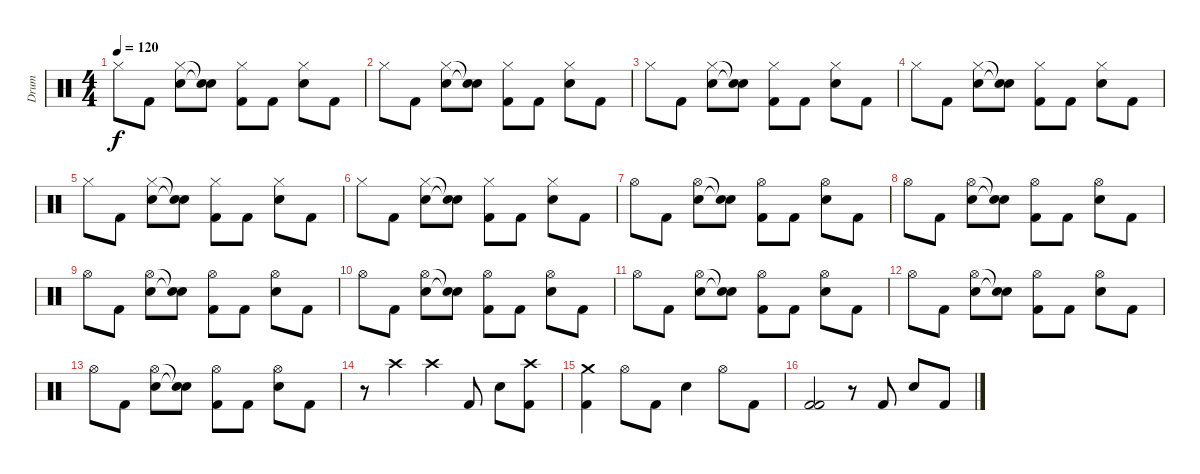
\track ("Drum" "Drum") {instrument percussion}
\staff {score}
\articulation defaults
\ts (4 4)
\tempo 120
\clef neutral
\ks c "Hi-Hat (closed)".8{dy f} "Kick (hit) 2".8
("Hi-Hat (closed)" "Electric Snare (hit)").8 ("Snare (hit)"{t} "Snare (hit)"{t}).8 ("Hi-Hat (closed)" "Kick (hit) 2").8 "Kick (hit) 2".8 ("Hi-Hat (closed)" "Electric Snare (hit)").8 "Kick (hit) 2".8 |
"Hi-Hat (closed)".8 "Kick (hit) 2".8 ("Hi-Hat (closed)" "Electric Snare (hit)").8 ("Snare (hit)"{t} "Snare (hit)"{t}).8 ("Hi-Hat (closed)" "Kick (hit) 2").8 "Kick (hit) 2".8 ("Hi-Hat (closed)" "Electric Snare (hit)").8 "Kick (hit) 2".8 |
"Hi-Hat (closed)".8 "Kick (hit) 2".8 ("Hi-Hat (closed)" "Electric Snare (hit)").8 ("Snare (hit)"{t} "Snare (hit)"{t}).8 ("Hi-Hat (closed)" "Kick (hit) 2").8 "Kick (hit) 2".8 ("Hi-Hat (closed)" "Electric Snare (hit)").8 "Kick (hit) 2".8 |
"Hi-Hat (closed)".8 "Kick (hit) 2".8 ("Hi-Hat (closed)" "Electric Snare (hit)").8 ("Snare (hit)"{t} "Snare (hit)"{t}).8 ("Hi-Hat (closed)" "Kick (hit) 2").8 "Kick (hit) 2".8 ("Hi-Hat (closed)" "Electric Snare (hit)").8 "Kick (hit) 2".8 |
"Hi-Hat (closed)".8 "Kick (hit) 2".8 ("Hi-Hat (closed)" "Electric Snare (hit)").8 ("Snare (hit)"{t} "Snare (hit)"{t}).8 ("Hi-Hat (closed)" "Kick (hit) 2").8 "Kick (hit) 2".8 ("Hi-Hat (closed)" "Electric Snare (hit)").8 "Kick (hit) 2".8 |
"Hi-Hat (closed)".8 "Kick (hit) 2".8 ("Hi-Hat (closed)" "Electric Snare (hit)").8 ("Snare (hit)"{t} "Snare (hit)"{t}).8 ("Hi-Hat (closed)" "Kick (hit) 2").8 "Kick (hit) 2".8 ("Hi-Hat (closed)" "Electric Snare (hit)").8 "Kick (hit) 2".8 |
"Hi-Hat (open)".8 "Kick (hit) 2".8 ("Hi-Hat (open)" "Electric Snare (hit)").8 ("Snare (hit)"{t} "Snare (hit)"{t}).8 ("Hi-Hat (open)" "Kick (hit) 2").8 "Kick (hit) 2".8 ("Hi-Hat (open)" "Electric Snare (hit)").8 "Kick (hit) 2".8 |
"Hi-Hat (open)".8 "Kick (hit) 2".8 ("Hi-Hat (open)" "Electric Snare (hit)").8 ("Snare (hit)"{t} "Snare (hit)"{t}).8 ("Hi-Hat (open)" "Kick (hit) 2").8 "Kick (hit) 2".8 ("Hi-Hat (open)" "Electric Snare (hit)").8 "Kick (hit) 2".8 |
"Hi-Hat (open)".8 "Kick (hit) 2".8 ("Hi-Hat (open)" "Electric Snare (hit)").8 ("Snare (hit)"{t} "Snare (hit)"{t}).8 ("Hi-Hat (open)" "Kick (hit) 2").8 "Kick (hit) 2".8 ("Hi-Hat (open)" "Electric Snare (hit)").8 "Kick (hit) 2".8 |
"Hi-Hat (open)".8 "Kick (hit) 2".8 ("Hi-Hat (open)" "Electric Snare (hit)").8 ("Snare (hit)"{t} "Snare (hit)"{t}).8 ("Hi-Hat (open)" "Kick (hit) 2").8 "Kick (hit) 2".8 ("Hi-Hat (open)" "Electric Snare (hit)").8 "Kick (hit) 2".8 |
"Hi-Hat (open)".8 "Kick (hit) 2".8 ("Hi-Hat (open)" "Electric Snare (hit)").8 ("Snare (hit)"{t} "Snare (hit)"{t}).8 ("Hi-Hat (open)" "Kick (hit) 2").8 "Kick (hit) 2".8 ("Hi-Hat (open)" "Electric Snare (hit)").8 "Kick (hit) 2".8 |
"Hi-Hat (open)".8 "Kick (hit) 2".8 ("Hi-Hat (open)" "Electric Snare (hit)").8 ("Snare (hit)"{t} "Snare (hit)"{t}).8 ("Hi-Hat (open)" "Kick (hit) 2").8 "Kick (hit) 2".8 ("Hi-Hat (open)" "Electric Snare (hit)").8 "Kick (hit) 2".8 |
"Hi-Hat (open)".8 "Kick (hit) 2".8 ("Hi-Hat (open)" "Electric Snare (hit)").8 ("Snare (hit)"{t} "Snare (hit)"{t}).8 ("Hi-Hat (open)" "Kick (hit) 2").8 "Kick (hit) 2".8 ("Hi-Hat (open)" "Electric Snare (hit)").8 "Kick (hit) 2".8 |
r.8 "Crash high (hit)".4 "Crash high (hit)".4 "Kick (hit) 2".8 "Electric Snare (hit)".8 ("Crash high (hit)" "Kick (hit) 2").8 |
("Crash medium (hit)" "Kick (hit) 2").4 "Hi-Hat (open)".8 "Kick (hit) 2".8 "Electric Snare (hit)".4 "Hi-Hat (open)".8 "Kick (hit) 2".8 |
("Kick (hit) 2" "Kick (hit) 2").2 r.8 "Kick (hit) 2".8 "Electric Snare (hit)".8 "Kick (hit) 2".8
